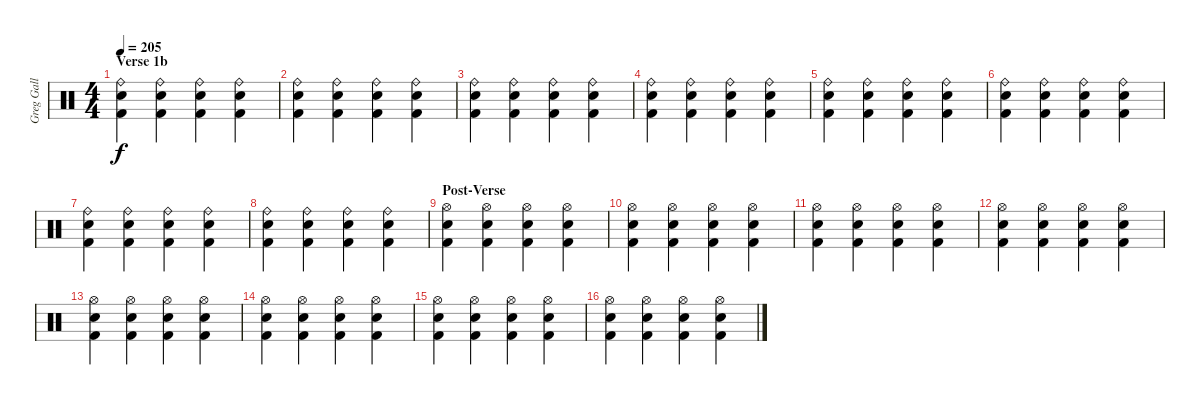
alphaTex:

\track ("Greg Gall - Drums" "Greg Gall ") {instrument percussion}
\staff {score}
\articulation defaults
\ts (4 4)
\section ("" "Verse 1b")
\tempo 205
\clef neutral
\ks c
("Ride (bell)" "Snare (hit) 2" "Kick (hit) 2").4{dy f} ("Ride (bell)" "Snare (hit) 2" "Kick (hit) 2").4 ("Ride (bell)" "Snare (hit) 2" "Kick (hit) 2").4 ("Ride (bell)" "Snare (hit) 2" "Kick (hit) 2").4 |
("Ride (bell)" "Snare (hit) 2" "Kick (hit) 2").4 ("Ride (bell)" "Snare (hit) 2" "Kick (hit) 2").4 ("Ride (bell)" "Snare (hit) 2" "Kick (hit) 2").4 ("Ride (bell)" "Snare (hit) 2" "Kick (hit) 2").4 |
("Ride (bell)" "Snare (hit) 2" "Kick (hit) 2").4 ("Ride (bell)" "Snare (hit) 2" "Kick (hit) 2").4 ("Ride (bell)" "Snare (hit) 2" "Kick (hit) 2").4 ("Ride (bell)" "Snare (hit) 2" "Kick (hit) 2").4 |
("Ride (bell)" "Snare (hit) 2" "Kick (hit) 2").4 ("Ride (bell)" "Snare (hit) 2" "Kick (hit) 2").4 ("Ride (bell)" "Snare (hit) 2" "Kick (hit) 2").4 ("Ride (bell)" "Snare (hit) 2" "Kick (hit) 2").4 |
("Ride (bell)" "Snare (hit) 2" "Kick (hit) 2").4 ("Ride (bell)" "Snare (hit) 2" "Kick (hit) 2").4 ("Ride (bell)" "Snare (hit) 2" "Kick (hit) 2").4 ("Ride (bell)" "Snare (hit) 2" "Kick (hit) 2").4 |
("Ride (bell)" "Snare (hit) 2" "Kick (hit) 2").4 ("Ride (bell)" "Snare (hit) 2" "Kick (hit) 2").4 ("Ride (bell)" "Snare (hit) 2" "Kick (hit) 2").4 ("Ride (bell)" "Snare (hit) 2" "Kick (hit) 2").4 |
("Ride (bell)" "Snare (hit) 2" "Kick (hit) 2").4 ("Ride (bell)" "Snare (hit) 2" "Kick (hit) 2").4 ("Ride (bell)" "Snare (hit) 2" "Kick (hit) 2").4 ("Ride (bell)" "Snare (hit) 2" "Kick (hit) 2").4 |
("Ride (bell)" "Snare (hit) 2" "Kick (hit) 2").4 ("Ride (bell)" "Snare (hit) 2" "Kick (hit) 2").4 ("Ride (bell)" "Snare (hit) 2" "Kick (hit) 2").4 ("Ride (bell)" "Snare (hit) 2" "Kick (hit) 2").4 |
\section ("" "Post-Verse")
("Hi-Hat (open)" "Snare (hit) 2" "Kick (hit) 2").4 ("Hi-Hat (open)" "Snare (hit) 2" "Kick (hit) 2").4 ("Hi-Hat (open)" "Snare (hit) 2" "Kick (hit) 2").4 ("Hi-Hat (open)" "Snare (hit) 2" "Kick (hit) 2").4 |
("Hi-Hat (open)" "Snare (hit) 2" "Kick (hit) 2").4 ("Hi-Hat (open)" "Snare (hit) 2" "Kick (hit) 2").4 ("Hi-Hat (open)" "Snare (hit) 2" "Kick (hit) 2").4 ("Hi-Hat (open)" "Snare (hit) 2" "Kick (hit) 2").4 |
("Hi-Hat (open)" "Snare (hit) 2" "Kick (hit) 2").4 ("Hi-Hat (open)" "Snare (hit) 2" "Kick (hit) 2").4 ("Hi-Hat (open)" "Snare (hit) 2" "Kick (hit) 2").4 ("Hi-Hat (open)" "Snare (hit) 2" "Kick (hit) 2").4 |
("Hi-Hat (open)" "Snare (hit) 2" "Kick (hit) 2").4 ("Hi-Hat (open)" "Snare (hit) 2" "Kick (hit) 2").4 ("Hi-Hat (open)" "Snare (hit) 2" "Kick (hit) 2").4 ("Hi-Hat (open)" "Snare (hit) 2" "Kick (hit) 2").4 |
("Hi-Hat (open)" "Snare (hit) 2" "Kick (hit) 2").4 ("Hi-Hat (open)" "Snare (hit) 2" "Kick (hit) 2").4 ("Hi-Hat (open)" "Snare (hit) 2" "Kick (hit) 2").4 ("Hi-Hat (open)" "Snare (hit) 2" "Kick (hit) 2").4 |
("Hi-Hat (open)" "Snare (hit) 2" "Kick (hit) 2").4 ("Hi-Hat (open)" "Snare (hit) 2" "Kick (hit) 2").4 ("Hi-Hat (open)" "Snare (hit) 2" "Kick (hit) 2").4 ("Hi-Hat (open)" "Snare (hit) 2" "Kick (hit) 2").4 |
("Hi-Hat (open)" "Snare (hit) 2" "Kick (hit) 2").4 ("Hi-Hat (open)" "Snare (hit) 2" "Kick (hit) 2").4 ("Hi-Hat (open)" "Snare (hit) 2" "Kick (hit) 2").4 ("Hi-Hat (open)" "Snare (hit) 2" "Kick (hit) 2").4 |
("Hi-Hat (open)" "Snare (hit) 2" "Kick (hit) 2").4 ("Hi-Hat (open)" "Snare (hit) 2" "Kick (hit) 2").4 ("Hi-Hat (open)" "Snare (hit) 2" "Kick (hit) 2").4 ("Hi-Hat (open)" "Snare (hit) 2" "Kick (hit) 2").4
